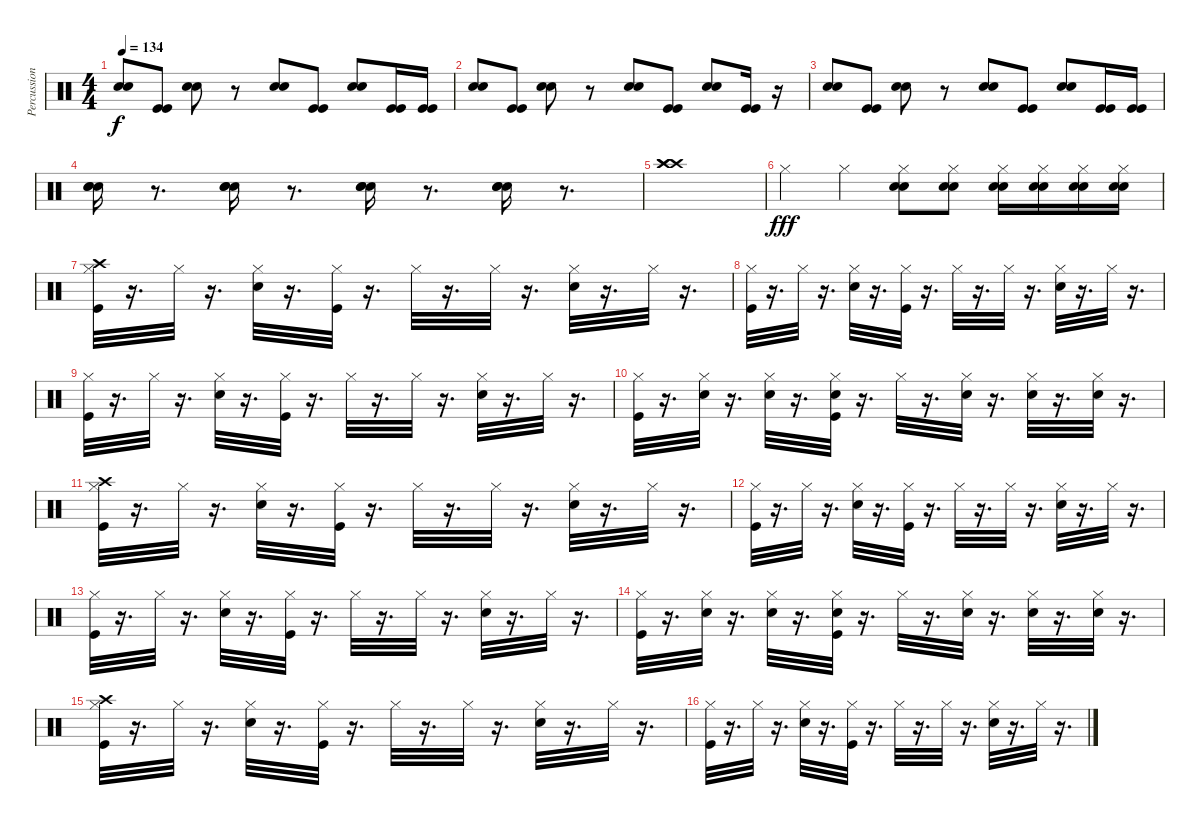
\track ("Percussion (Rico)" "Percussion") {instrument percussion}
\staff {score}
\articulation defaults
\ts (4 4)
\tempo 134
\clef neutral
\ks c
("Electric Snare (hit)" "Electric Snare (hit)").8{dy f} ("Kick (hit)" "Kick (hit)").8 ("Electric Snare (hit)" "Electric Snare (hit)").8 r.8 ("Electric Snare (hit)" "Electric Snare (hit)").8 ("Kick (hit)" "Kick (hit)").8 ("Electric Snare (hit)" "Electric Snare (hit)").8 ("Kick (hit)" "Kick (hit)").16 ("Kick (hit)" "Kick (hit)").16 |
("Electric Snare (hit)" "Electric Snare (hit)").8 ("Kick (hit)" "Kick (hit)").8 ("Electric Snare (hit)" "Electric Snare (hit)").8 r.8 ("Electric Snare (hit)" "Electric Snare (hit)").8 ("Kick (hit)" "Kick (hit)").8 ("Electric Snare (hit)" "Electric Snare (hit)").8 ("Kick (hit)" "Kick (hit)").16 r.16 |
("Electric Snare (hit)" "Electric Snare (hit)").8 ("Kick (hit)" "Kick (hit)").8 ("Electric Snare (hit)" "Electric Snare (hit)").8 r.8 ("Electric Snare (hit)" "Electric Snare (hit)").8 ("Kick (hit)" "Kick (hit)").8 ("Electric Snare (hit)" "Electric Snare (hit)").8 ("Kick (hit)" "Kick (hit)").16 ("Kick (hit)" "Kick (hit)").16 |
("Electric Snare (hit)" "Electric Snare (hit)" "Electric Snare (hit)").16 r.8{d} ("Electric Snare (hit)" "Electric Snare (hit)" "Electric Snare (hit)").16 r.8{d} ("Electric Snare (hit)" "Electric Snare (hit)" "Electric Snare (hit)").16 r.8{d} ("Electric Snare (hit)" "Electric Snare (hit)" "Electric Snare (hit)").16 r.8{d} |
("Crash high (hit)" "Crash high (hit)" "Crash high (hit)").1 |
"Hi-Hat (closed)".4{dy fff} "Hi-Hat (closed)".4 ("Hi-Hat (closed)" "Snare (hit) 2" "Snare (hit) 2").8 ("Hi-Hat (closed)" "Snare (hit) 2" "Snare (hit) 2").8 ("Hi-Hat (closed)" "Snare (hit) 2" "Snare (hit) 2").16 ("Hi-Hat (closed)" "Snare (hit) 2" "Snare (hit) 2").16 ("Hi-Hat (closed)" "Snare (hit) 2" "Snare (hit) 2").16 ("Hi-Hat (closed)" "Snare (hit) 2" "Snare (hit) 2").16 |
("Kick (hit)" "Hi-Hat (closed)" "Crash high (hit)").32 r.16{d} "Hi-Hat (closed)".32 r.16{d} ("Electric Snare (hit)" "Hi-Hat (closed)").32 r.16{d} ("Kick (hit)" "Hi-Hat (closed)").32 r.16{d} "Hi-Hat (closed)".32 r.16{d} "Hi-Hat (closed)".32 r.16{d} ("Electric Snare (hit)" "Hi-Hat (closed)").32 r.16{d} "Hi-Hat (closed)".32 r.16{d} |
("Kick (hit)" "Hi-Hat (closed)").32 r.16{d} "Hi-Hat (closed)".32 r.16{d} ("Electric Snare (hit)" "Hi-Hat (closed)").32 r.16{d} ("Kick (hit)" "Hi-Hat (closed)").32 r.16{d} "Hi-Hat (closed)".32 r.16{d} "Hi-Hat (closed)".32 r.16{d} ("Electric Snare (hit)" "Hi-Hat (closed)").32 r.16{d} "Hi-Hat (closed)".32 r.16{d} |
("Kick (hit)" "Hi-Hat (closed)").32 r.16{d} "Hi-Hat (closed)".32 r.16{d} ("Electric Snare (hit)" "Hi-Hat (closed)").32 r.16{d} ("Kick (hit)" "Hi-Hat (closed)").32 r.16{d} "Hi-Hat (closed)".32 r.16{d} "Hi-Hat (closed)".32 r.16{d} ("Electric Snare (hit)" "Hi-Hat (closed)").32 r.16{d} "Hi-Hat (closed)".32 r.16{d} |
("Kick (hit)" "Hi-Hat (closed)").32 r.16{d} ("Hi-Hat (closed)" "Electric Snare (hit)").32 r.16{d} ("Electric Snare (hit)" "Hi-Hat (closed)").32 r.16{d} ("Kick (hit)" "Hi-Hat (closed)" "Electric Snare (hit)").32 r.16{d} "Hi-Hat (closed)".32 r.16{d} ("Hi-Hat (closed)" "Electric Snare (hit)").32 r.16{d} ("Electric Snare (hit)" "Hi-Hat (closed)").32 r.16{d} ("Hi-Hat (closed)" "Electric Snare (hit)").32 r.16{d} |
("Kick (hit)" "Hi-Hat (closed)" "Crash high (hit)").32 r.16{d} "Hi-Hat (closed)".32 r.16{d} ("Electric Snare (hit)" "Hi-Hat (closed)").32 r.16{d} ("Kick (hit)" "Hi-Hat (closed)").32 r.16{d} "Hi-Hat (closed)".32 r.16{d} "Hi-Hat (closed)".32 r.16{d} ("Electric Snare (hit)" "Hi-Hat (closed)").32 r.16{d} "Hi-Hat (closed)".32 r.16{d} |
("Kick (hit)" "Hi-Hat (closed)").32 r.16{d} "Hi-Hat (closed)".32 r.16{d} ("Electric Snare (hit)" "Hi-Hat (closed)").32 r.16{d} ("Kick (hit)" "Hi-Hat (closed)").32 r.16{d} "Hi-Hat (closed)".32 r.16{d} "Hi-Hat (closed)".32 r.16{d} ("Electric Snare (hit)" "Hi-Hat (closed)").32 r.16{d} "Hi-Hat (closed)".32 r.16{d} |
("Kick (hit)" "Hi-Hat (closed)").32 r.16{d} "Hi-Hat (closed)".32 r.16{d} ("Electric Snare (hit)" "Hi-Hat (closed)").32 r.16{d} ("Kick (hit)" "Hi-Hat (closed)").32 r.16{d} "Hi-Hat (closed)".32 r.16{d} "Hi-Hat (closed)".32 r.16{d} ("Electric Snare (hit)" "Hi-Hat (closed)").32 r.16{d} "Hi-Hat (closed)".32 r.16{d} |
("Kick (hit)" "Hi-Hat (closed)").32 r.16{d} ("Hi-Hat (closed)" "Electric Snare (hit)").32 r.16{d} ("Electric Snare (hit)" "Hi-Hat (closed)").32 r.16{d} ("Kick (hit)" "Hi-Hat (closed)" "Electric Snare (hit)").32 r.16{d} "Hi-Hat (closed)".32 r.16{d} ("Hi-Hat (closed)" "Electric Snare (hit)").32 r.16{d} ("Electric Snare (hit)" "Hi-Hat (closed)").32 r.16{d} ("Hi-Hat (closed)" "Electric Snare (hit)").32 r.16{d} |
("Kick (hit)" "Hi-Hat (closed)" "Crash high (hit)").32 r.16{d} "Hi-Hat (closed)".32 r.16{d} ("Electric Snare (hit)" "Hi-Hat (closed)").32 r.16{d} ("Kick (hit)" "Hi-Hat (closed)").32 r.16{d} "Hi-Hat (closed)".32 r.16{d} "Hi-Hat (closed)".32 r.16{d} ("Electric Snare (hit)" "Hi-Hat (closed)").32 r.16{d} "Hi-Hat (closed)".32 r.16{d} |
("Kick (hit)" "Hi-Hat (closed)").32 r.16{d} "Hi-Hat (closed)".32 r.16{d} ("Electric Snare (hit)" "Hi-Hat (closed)").32 r.16{d} ("Kick (hit)" "Hi-Hat (closed)").32 r.16{d} "Hi-Hat (closed)".32 r.16{d} "Hi-Hat (closed)".32 r.16{d} ("Electric Snare (hit)" "Hi-Hat (closed)").32 r.16{d} "Hi-Hat (closed)".32 r.16{d}
